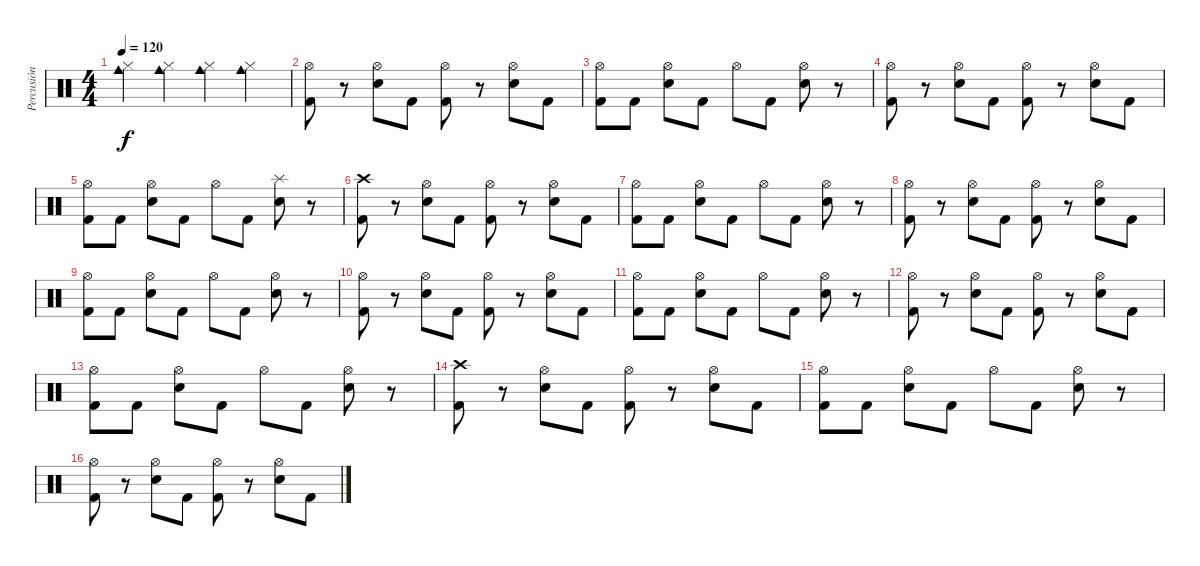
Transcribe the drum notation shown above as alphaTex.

\track ("Percusión" "Percusión") {instrument percussion}
\staff {score}
\articulation defaults
\ts (4 4)
\tempo 120
\clef neutral
\ks c
("Hi-Hat (closed)" "Cowbell medium (hit)").4{dy f} ("Hi-Hat (closed)" "Cowbell medium (hit)").4 ("Hi-Hat (closed)" "Cowbell medium (hit)").4 ("Hi-Hat (closed)" "Cowbell medium (hit)").4 |
("Hi-Hat (open)" "Kick (hit) 2").8 r.8 ("Hi-Hat (open)" "Snare (hit) 2").8 "Kick (hit) 2".8 ("Hi-Hat (open)" "Kick (hit) 2").8 r.8 ("Hi-Hat (open)" "Snare (hit) 2").8 "Kick (hit) 2".8 |
("Hi-Hat (open)" "Kick (hit) 2").8 "Kick (hit) 2".8 ("Hi-Hat (open)" "Snare (hit) 2").8 "Kick (hit) 2".8 "Hi-Hat (open)".8 "Kick (hit) 2".8 ("Hi-Hat (open)" "Snare (hit) 2").8 r.8 |
("Hi-Hat (open)" "Kick (hit) 2").8 r.8 ("Hi-Hat (open)" "Snare (hit) 2").8 "Kick (hit) 2".8 ("Hi-Hat (open)" "Kick (hit) 2").8 r.8 ("Hi-Hat (open)" "Snare (hit) 2").8 "Kick (hit) 2".8 |
("Hi-Hat (open)" "Kick (hit) 2").8 "Kick (hit) 2".8 ("Hi-Hat (open)" "Snare (hit) 2").8 "Kick (hit) 2".8 "Hi-Hat (open)".8 "Kick (hit) 2".8 ("Splash (hit)" "Snare (hit) 2").8 r.8 |
("Crash high (hit)" "Kick (hit) 2").8 r.8 ("Hi-Hat (open)" "Snare (hit) 2").8 "Kick (hit) 2".8 ("Hi-Hat (open)" "Kick (hit) 2").8 r.8 ("Hi-Hat (open)" "Snare (hit) 2").8 "Kick (hit) 2".8 |
("Hi-Hat (open)" "Kick (hit) 2").8 "Kick (hit) 2".8 ("Hi-Hat (open)" "Snare (hit) 2").8 "Kick (hit) 2".8 "Hi-Hat (open)".8 "Kick (hit) 2".8 ("Hi-Hat (open)" "Snare (hit) 2").8 r.8 |
("Hi-Hat (open)" "Kick (hit) 2").8 r.8 ("Hi-Hat (open)" "Snare (hit) 2").8 "Kick (hit) 2".8 ("Hi-Hat (open)" "Kick (hit) 2").8 r.8 ("Hi-Hat (open)" "Snare (hit) 2").8 "Kick (hit) 2".8 |
("Hi-Hat (open)" "Kick (hit) 2").8 "Kick (hit) 2".8 ("Hi-Hat (open)" "Snare (hit) 2").8 "Kick (hit) 2".8 "Hi-Hat (open)".8 "Kick (hit) 2".8 ("Hi-Hat (open)" "Snare (hit) 2").8 r.8 |
("Hi-Hat (open)" "Kick (hit) 2").8 r.8 ("Hi-Hat (open)" "Snare (hit) 2").8 "Kick (hit) 2".8 ("Hi-Hat (open)" "Kick (hit) 2").8 r.8 ("Hi-Hat (open)" "Snare (hit) 2").8 "Kick (hit) 2".8 |
("Hi-Hat (open)" "Kick (hit) 2").8 "Kick (hit) 2".8 ("Hi-Hat (open)" "Snare (hit) 2").8 "Kick (hit) 2".8 "Hi-Hat (open)".8 "Kick (hit) 2".8 ("Hi-Hat (open)" "Snare (hit) 2").8 r.8 |
("Hi-Hat (open)" "Kick (hit) 2").8 r.8 ("Hi-Hat (open)" "Snare (hit) 2").8 "Kick (hit) 2".8 ("Hi-Hat (open)" "Kick (hit) 2").8 r.8 ("Hi-Hat (open)" "Snare (hit) 2").8 "Kick (hit) 2".8 |
("Hi-Hat (open)" "Kick (hit) 2").8 "Kick (hit) 2".8 ("Hi-Hat (open)" "Snare (hit) 2").8 "Kick (hit) 2".8 "Hi-Hat (open)".8 "Kick (hit) 2".8 ("Hi-Hat (open)" "Snare (hit) 2").8 r.8 |
("Crash high (hit)" "Kick (hit) 2").8 r.8 ("Hi-Hat (open)" "Snare (hit) 2").8 "Kick (hit) 2".8 ("Hi-Hat (open)" "Kick (hit) 2").8 r.8 ("Hi-Hat (open)" "Snare (hit) 2").8 "Kick (hit) 2".8 |
("Hi-Hat (open)" "Kick (hit) 2").8 "Kick (hit) 2".8 ("Hi-Hat (open)" "Snare (hit) 2").8 "Kick (hit) 2".8 "Hi-Hat (open)".8 "Kick (hit) 2".8 ("Hi-Hat (open)" "Snare (hit) 2").8 r.8 |
("Hi-Hat (open)" "Kick (hit) 2").8 r.8 ("Hi-Hat (open)" "Snare (hit) 2").8 "Kick (hit) 2".8 ("Hi-Hat (open)" "Kick (hit) 2").8 r.8 ("Hi-Hat (open)" "Snare (hit) 2").8 "Kick (hit) 2".8
